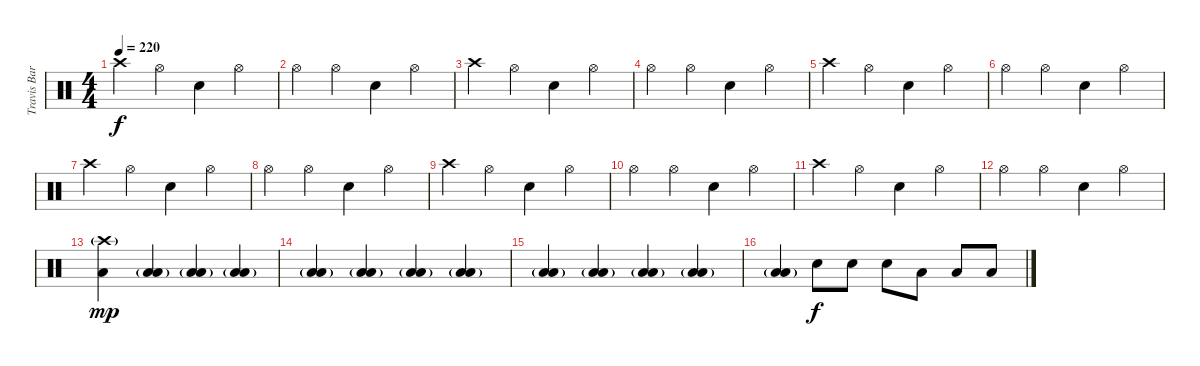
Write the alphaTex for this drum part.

\track ("Travis Barker" "Travis Bar") {instrument percussion}
\staff {score}
\articulation defaults
\ts (4 4)
\tempo 220
\clef neutral
\ks c "Crash high (hit)".4{dy f} "Hi-Hat (open)".4 "Snare (hit) 2".4 "Hi-Hat (open)".4
|
"Hi-Hat (open)".4 "Hi-Hat (open)".4 "Snare (hit) 2".4 "Hi-Hat (open)".4 |
"Crash high (hit)".4 "Hi-Hat (open)".4 "Snare (hit) 2".4 "Hi-Hat (open)".4 |
"Hi-Hat (open)".4 "Hi-Hat (open)".4 "Snare (hit) 2".4 "Hi-Hat (open)".4 |
"Crash high (hit)".4 "Hi-Hat (open)".4 "Snare (hit) 2".4 "Hi-Hat (open)".4 |
"Hi-Hat (open)".4 "Hi-Hat (open)".4 "Snare (hit) 2".4 "Hi-Hat (open)".4 |
"Crash high (hit)".4 "Hi-Hat (open)".4 "Snare (hit) 2".4 "Hi-Hat (open)".4 |
"Hi-Hat (open)".4 "Hi-Hat (open)".4 "Snare (hit) 2".4 "Hi-Hat (open)".4 |
"Crash high (hit)".4 "Hi-Hat (open)".4 "Snare (hit) 2".4 "Hi-Hat (open)".4 |
"Hi-Hat (open)".4 "Hi-Hat (open)".4 "Snare (hit) 2".4 "Hi-Hat (open)".4 |
"Crash high (hit)".4 "Hi-Hat (open)".4 "Snare (hit) 2".4 "Hi-Hat (open)".4 |
"Hi-Hat (open)".4 "Hi-Hat (open)".4 "Snare (hit) 2".4 "Hi-Hat (open)".4 |
("Crash high (hit)"{g} "Low Floor Tom (hit)").4{dy mp} ("Low Tom (hit)"{g} "Low Floor Tom (hit)").4 ("Low Tom (hit)"{g} "Low Floor Tom (hit)").4 ("Low Tom (hit)"{g} "Low Floor Tom (hit)").4 |
("Low Tom (hit)"{g} "Low Floor Tom (hit)").4 ("Low Tom (hit)"{g} "Low Floor Tom (hit)").4 ("Low Tom (hit)"{g} "Low Floor Tom (hit)").4 ("Low Tom (hit)"{g} "Low Floor Tom (hit)").4 |
("Low Tom (hit)"{g} "Low Floor Tom (hit)").4 ("Low Tom (hit)"{g} "Low Floor Tom (hit)").4 ("Low Tom (hit)"{g} "Low Floor Tom (hit)").4 ("Low Tom (hit)"{g} "Low Floor Tom (hit)").4 |
("Low Tom (hit)"{g} "Low Floor Tom (hit)").4 "Snare (hit) 2".8{dy f} "Snare (hit) 2".8 "Snare (hit) 2".8 "Low Floor Tom (hit)".8 "Low Floor Tom (hit)".8 "Low Floor Tom (hit)".8
